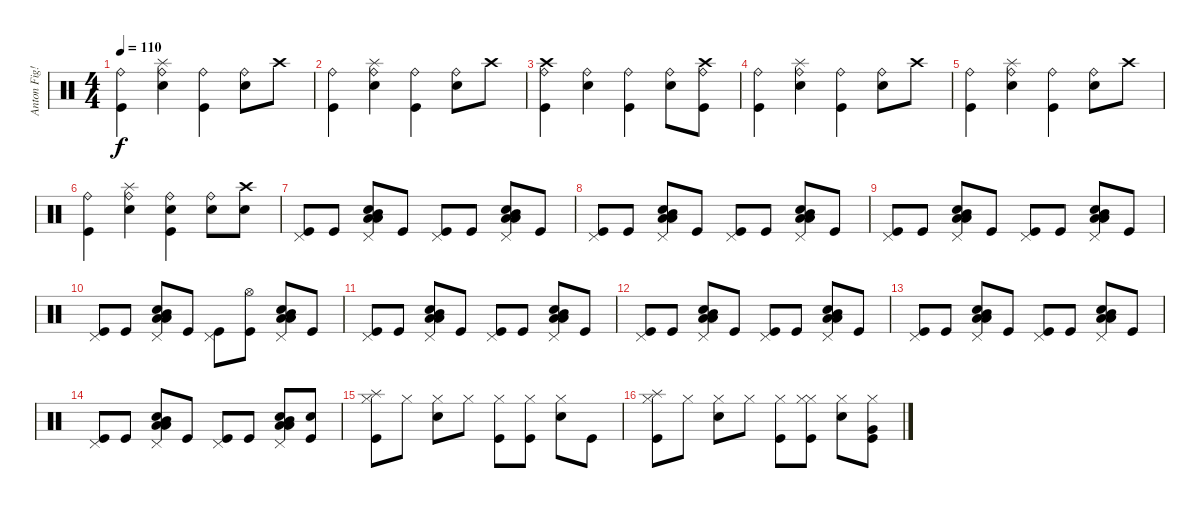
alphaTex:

\track ("Anton Fig!?!" "Anton Fig!") {instrument percussion}
\staff {score}
\articulation defaults
\ts (4 4)
\tempo 110
\clef neutral
\ks c
("Ride (bell)" "Kick (hit)").4{dy f} ("Ride (bell)" "Splash (hit)" "Electric Snare (hit)").4 ("Ride (bell)" "Kick (hit)").4 ("Ride (bell)" "Electric Snare (hit)").8 "Crash high (hit)".8 |
("Ride (bell)" "Kick (hit)").4 ("Ride (bell)" "Splash (hit)" "Electric Snare (hit)").4 ("Ride (bell)" "Kick (hit)").4 ("Ride (bell)" "Electric Snare (hit)").8 "Crash high (hit)".8 |
("Ride (bell)" "Crash high (hit)" "Kick (hit)").4 ("Ride (bell)" "Electric Snare (hit)").4 ("Ride (bell)" "Kick (hit)").4 ("Ride (bell)" "Electric Snare (hit)").8 ("Ride (bell)" "Crash high (hit)" "Kick (hit)").8 |
("Ride (bell)" "Kick (hit)").4 ("Ride (bell)" "Splash (hit)" "Electric Snare (hit)").4 ("Ride (bell)" "Kick (hit)").4 ("Ride (bell)" "Electric Snare (hit)").8 "Crash high (hit)".8 |
("Ride (bell)" "Kick (hit)").4 ("Ride (bell)" "Splash (hit)" "Electric Snare (hit)").4 ("Ride (bell)" "Kick (hit)").4 ("Ride (bell)" "Electric Snare (hit)").8 "Crash high (hit)".8 |
("Ride (bell)" "Kick (hit)").4 ("Ride (bell)" "Splash (hit)" "Electric Snare (hit)").4 ("Ride (bell)" "Electric Snare (hit)" "Kick (hit)").4 ("Ride (bell)" "Electric Snare (hit)").8 ("Crash high (hit)" "Electric Snare (hit)").8 |
("Kick (hit)" "Pedal Hi-Hat (hit)").8 "Kick (hit)".8 ("Low Tom (hit)" "Mid Tom (hit)" "Low Floor Tom (hit)" "Electric Snare (hit)" "Pedal Hi-Hat (hit)").8 "Kick (hit)".8 ("Kick (hit)" "Pedal Hi-Hat (hit)").8 "Kick (hit)".8 ("Low Tom (hit)" "Mid Tom (hit)" "Low Floor Tom (hit)" "Electric Snare (hit)" "Pedal Hi-Hat (hit)").8 "Kick (hit)".8 |
("Kick (hit)" "Pedal Hi-Hat (hit)").8 "Kick (hit)".8 ("Low Tom (hit)" "Mid Tom (hit)" "Low Floor Tom (hit)" "Electric Snare (hit)" "Pedal Hi-Hat (hit)").8 "Kick (hit)".8 ("Kick (hit)" "Pedal Hi-Hat (hit)").8 "Kick (hit)".8 ("Low Tom (hit)" "Mid Tom (hit)" "Low Floor Tom (hit)" "Electric Snare (hit)" "Pedal Hi-Hat (hit)").8 "Kick (hit)".8 |
("Kick (hit)" "Pedal Hi-Hat (hit)").8 "Kick (hit)".8 ("Low Tom (hit)" "Mid Tom (hit)" "Low Floor Tom (hit)" "Electric Snare (hit)" "Pedal Hi-Hat (hit)").8 "Kick (hit)".8 ("Kick (hit)" "Pedal Hi-Hat (hit)").8 "Kick (hit)".8 ("Low Tom (hit)" "Mid Tom (hit)" "Low Floor Tom (hit)" "Electric Snare (hit)" "Pedal Hi-Hat (hit)").8 "Kick (hit)".8 |
("Kick (hit)" "Pedal Hi-Hat (hit)").8 "Kick (hit)".8 ("Low Tom (hit)" "Mid Tom (hit)" "Low Floor Tom (hit)" "Electric Snare (hit)" "Pedal Hi-Hat (hit)").8 "Kick (hit)".8 ("Kick (hit)" "Pedal Hi-Hat (hit)").8 ("Kick (hit)" "Hi-Hat (open)").8 ("Low Tom (hit)" "Mid Tom (hit)" "Low Floor Tom (hit)" "Electric Snare (hit)" "Pedal Hi-Hat (hit)").8 "Kick (hit)".8 |
("Kick (hit)" "Pedal Hi-Hat (hit)").8 "Kick (hit)".8 ("Low Tom (hit)" "Mid Tom (hit)" "Low Floor Tom (hit)" "Electric Snare (hit)" "Pedal Hi-Hat (hit)").8 "Kick (hit)".8 ("Kick (hit)" "Pedal Hi-Hat (hit)").8 "Kick (hit)".8 ("Low Tom (hit)" "Mid Tom (hit)" "Low Floor Tom (hit)" "Electric Snare (hit)" "Pedal Hi-Hat (hit)").8 "Kick (hit)".8 |
("Kick (hit)" "Pedal Hi-Hat (hit)").8 "Kick (hit)".8 ("Low Tom (hit)" "Mid Tom (hit)" "Low Floor Tom (hit)" "Electric Snare (hit)" "Pedal Hi-Hat (hit)").8 "Kick (hit)".8 ("Kick (hit)" "Pedal Hi-Hat (hit)").8 "Kick (hit)".8 ("Low Tom (hit)" "Mid Tom (hit)" "Low Floor Tom (hit)" "Electric Snare (hit)" "Pedal Hi-Hat (hit)").8 "Kick (hit)".8 |
("Kick (hit)" "Pedal Hi-Hat (hit)").8 "Kick (hit)".8 ("Low Tom (hit)" "Mid Tom (hit)" "Low Floor Tom (hit)" "Electric Snare (hit)" "Pedal Hi-Hat (hit)").8 "Kick (hit)".8 ("Kick (hit)" "Pedal Hi-Hat (hit)").8 "Kick (hit)".8 ("Low Tom (hit)" "Mid Tom (hit)" "Low Floor Tom (hit)" "Electric Snare (hit)" "Pedal Hi-Hat (hit)").8 "Kick (hit)".8 |
("Kick (hit)" "Pedal Hi-Hat (hit)").8 "Kick (hit)".8 ("Low Tom (hit)" "Mid Tom (hit)" "Low Floor Tom (hit)" "Electric Snare (hit)" "Pedal Hi-Hat (hit)").8 "Kick (hit)".8 ("Kick (hit)" "Pedal Hi-Hat (hit)").8 "Kick (hit)".8 ("Low Tom (hit)" "Mid Tom (hit)" "Low Floor Tom (hit)" "Electric Snare (hit)" "Pedal Hi-Hat (hit)").8 ("Kick (hit)" "Electric Snare (hit)").8 |
("Hi-Hat (closed)" "Splash (hit)" "Kick (hit)").8 "Hi-Hat (closed)".8 ("Hi-Hat (closed)" "Electric Snare (hit)").8 "Hi-Hat (closed)".8 ("Hi-Hat (closed)" "Kick (hit)").8 ("Hi-Hat (closed)" "Kick (hit)").8 ("Hi-Hat (closed)" "Electric Snare (hit)").8 "Kick (hit)".8 |
("Hi-Hat (closed)" "Splash (hit)" "Kick (hit)").8 "Hi-Hat (closed)".8 ("Hi-Hat (closed)" "Electric Snare (hit)").8 "Hi-Hat (closed)".8 ("Hi-Hat (closed)" "Kick (hit)").8 ("Hi-Hat (closed)" "Hi-Hat (closed)" "Kick (hit)").8 ("Hi-Hat (closed)" "Electric Snare (hit)").8 ("Hi-Hat (closed)" "Very Low Tom (hit)" "Kick (hit)").8
